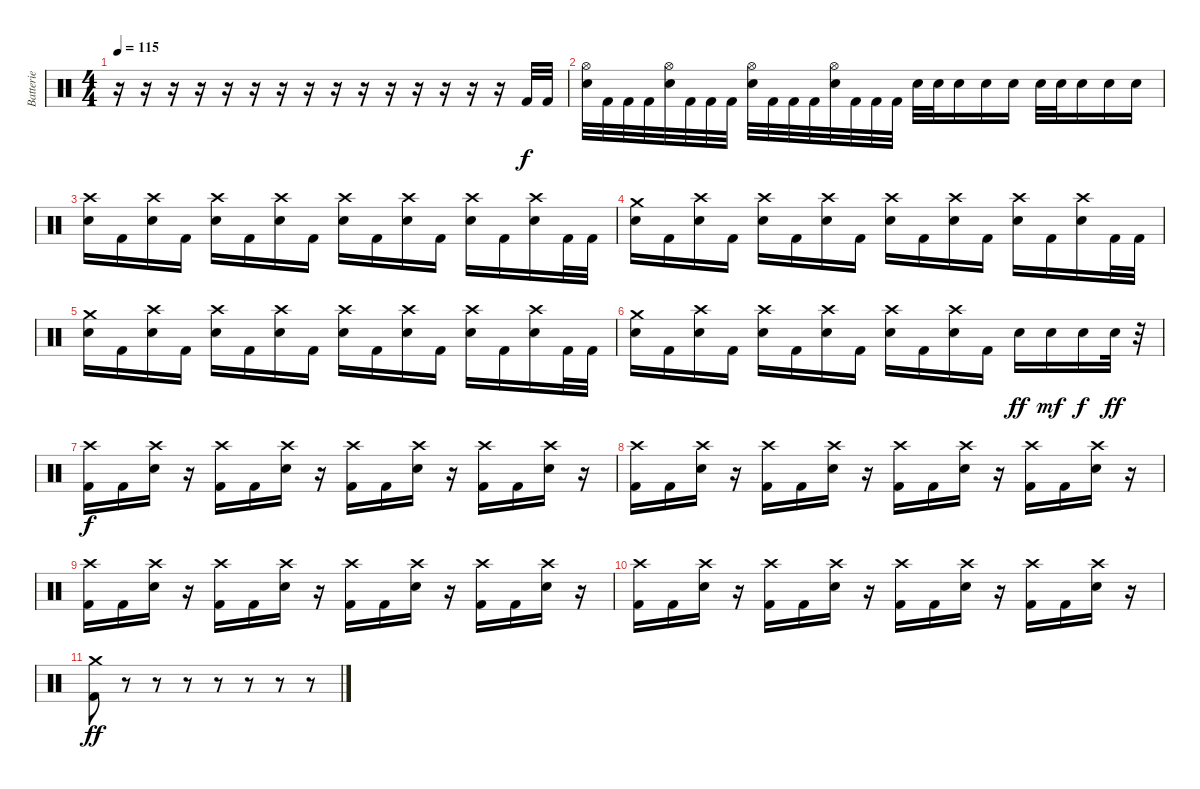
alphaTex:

\track ("Batterie" "Batterie") {instrument percussion}
\staff {score}
\articulation defaults
\ts (4 4)
\tempo 115
\clef neutral
\ks c
r.16{dy f} r.16 r.16 r.16 r.16 r.16 r.16 r.16 r.16 r.16 r.16 r.16 r.16 r.16 r.16 "Kick (hit) 2".32 "Kick (hit) 2".32 |
("Electric Snare (hit)" "Hi-Hat (open)").32 "Kick (hit) 2".32 "Kick (hit) 2".32 "Kick (hit) 2".32 ("Electric Snare (hit)" "Hi-Hat (open)").32 "Kick (hit) 2".32 "Kick (hit) 2".32 "Kick (hit) 2".32 ("Electric Snare (hit)" "Hi-Hat (open)").32 "Kick (hit) 2".32 "Kick (hit) 2".32 "Kick (hit) 2".32 ("Electric Snare (hit)" "Hi-Hat (open)").32 "Kick (hit) 2".32 "Kick (hit) 2".32 "Kick (hit) 2".32 "Electric Snare (hit)".32 "Electric Snare (hit)".32 "Electric Snare (hit)".16 "Electric Snare (hit)".16 "Electric Snare (hit)".16 "Electric Snare (hit)".32 "Electric Snare (hit)".32 "Electric Snare (hit)".16 "Electric Snare (hit)".16 "Electric Snare (hit)".16 |
("Electric Snare (hit)" "Crash high (hit)").16 "Kick (hit) 2".16 ("Electric Snare (hit)" "Crash high (hit)").16 "Kick (hit) 2".16 ("Electric Snare (hit)" "Crash high (hit)").16 "Kick (hit) 2".16 ("Electric Snare (hit)" "Crash high (hit)").16 "Kick (hit) 2".16 ("Electric Snare (hit)" "Crash high (hit)").16 "Kick (hit) 2".16 ("Electric Snare (hit)" "Crash high (hit)").16 "Kick (hit) 2".16 ("Electric Snare (hit)" "Crash high (hit)").16 "Kick (hit) 2".16 ("Electric Snare (hit)" "Crash high (hit)").16 "Kick (hit) 2".32 "Kick (hit) 2".32 |
("Electric Snare (hit)" "Crash medium (hit)").16 "Kick (hit) 2".16 ("Electric Snare (hit)" "Crash high (hit)").16 "Kick (hit) 2".16 ("Electric Snare (hit)" "Crash high (hit)").16 "Kick (hit) 2".16 ("Electric Snare (hit)" "Crash high (hit)").16 "Kick (hit) 2".16 ("Electric Snare (hit)" "Crash high (hit)").16 "Kick (hit) 2".16 ("Electric Snare (hit)" "Crash high (hit)").16 "Kick (hit) 2".16 ("Electric Snare (hit)" "Crash high (hit)").16 "Kick (hit) 2".16 ("Electric Snare (hit)" "Crash high (hit)").16 "Kick (hit) 2".32 "Kick (hit) 2".32 |
("Electric Snare (hit)" "Crash medium (hit)").16 "Kick (hit) 2".16 ("Electric Snare (hit)" "Crash high (hit)").16 "Kick (hit) 2".16 ("Electric Snare (hit)" "Crash high (hit)").16 "Kick (hit) 2".16 ("Electric Snare (hit)" "Crash high (hit)").16 "Kick (hit) 2".16 ("Electric Snare (hit)" "Crash high (hit)").16 "Kick (hit) 2".16 ("Electric Snare (hit)" "Crash high (hit)").16 "Kick (hit) 2".16 ("Electric Snare (hit)" "Crash high (hit)").16 "Kick (hit) 2".16 ("Electric Snare (hit)" "Crash high (hit)").16 "Kick (hit) 2".32 "Kick (hit) 2".32 |
("Electric Snare (hit)" "Crash medium (hit)").16 "Kick (hit) 2".16 ("Electric Snare (hit)" "Crash high (hit)").16 "Kick (hit) 2".16 ("Electric Snare (hit)" "Crash high (hit)").16 "Kick (hit) 2".16 ("Electric Snare (hit)" "Crash high (hit)").16 "Kick (hit) 2".16 ("Electric Snare (hit)" "Crash high (hit)").16 "Kick (hit) 2".16 ("Electric Snare (hit)" "Crash high (hit)").16 "Kick (hit) 2".16 "Electric Snare (hit)".16{dy ff} "Electric Snare (hit)".16{dy mf} "Electric Snare (hit)".16{dy f} "Electric Snare (hit)".32{dy ff} r.32 |
("Kick (hit) 2" "Crash high (hit)").16{dy f} "Kick (hit) 2".16 ("Electric Snare (hit)" "Crash high (hit)").16 r.16 ("Kick (hit) 2" "Crash high (hit)").16 "Kick (hit) 2".16 ("Electric Snare (hit)" "Crash high (hit)").16 r.16 ("Kick (hit) 2" "Crash high (hit)").16 "Kick (hit) 2".16 ("Electric Snare (hit)" "Crash high (hit)").16 r.16 ("Kick (hit) 2" "Crash high (hit)").16 "Kick (hit) 2".16 ("Electric Snare (hit)" "Crash high (hit)").16 r.16 |
("Kick (hit) 2" "Crash high (hit)").16 "Kick (hit) 2".16 ("Electric Snare (hit)" "Crash high (hit)").16 r.16 ("Kick (hit) 2" "Crash high (hit)").16 "Kick (hit) 2".16 ("Electric Snare (hit)" "Crash high (hit)").16 r.16 ("Kick (hit) 2" "Crash high (hit)").16 "Kick (hit) 2".16 ("Electric Snare (hit)" "Crash high (hit)").16 r.16 ("Kick (hit) 2" "Crash high (hit)").16 "Kick (hit) 2".16 ("Electric Snare (hit)" "Crash high (hit)").16 r.16 |
("Kick (hit) 2" "Crash high (hit)").16 "Kick (hit) 2".16 ("Electric Snare (hit)" "Crash high (hit)").16 r.16 ("Kick (hit) 2" "Crash high (hit)").16 "Kick (hit) 2".16 ("Electric Snare (hit)" "Crash high (hit)").16 r.16 ("Kick (hit) 2" "Crash high (hit)").16 "Kick (hit) 2".16 ("Electric Snare (hit)" "Crash high (hit)").16 r.16 ("Kick (hit) 2" "Crash high (hit)").16 "Kick (hit) 2".16 ("Electric Snare (hit)" "Crash high (hit)").16 r.16 |
("Kick (hit) 2" "Crash high (hit)").16 "Kick (hit) 2".16 ("Electric Snare (hit)" "Crash high (hit)").16 r.16 ("Kick (hit) 2" "Crash high (hit)").16 "Kick (hit) 2".16 ("Electric Snare (hit)" "Crash high (hit)").16 r.16 ("Kick (hit) 2" "Crash high (hit)").16 "Kick (hit) 2".16 ("Electric Snare (hit)" "Crash high (hit)").16 r.16 ("Kick (hit) 2" "Crash high (hit)").16 "Kick (hit) 2".16 ("Electric Snare (hit)" "Crash high (hit)").16 r.16 |
("Kick (hit) 2" "Crash medium (hit)").8{dy ff} r.8 r.8 r.8 r.8 r.8 r.8 r.8
